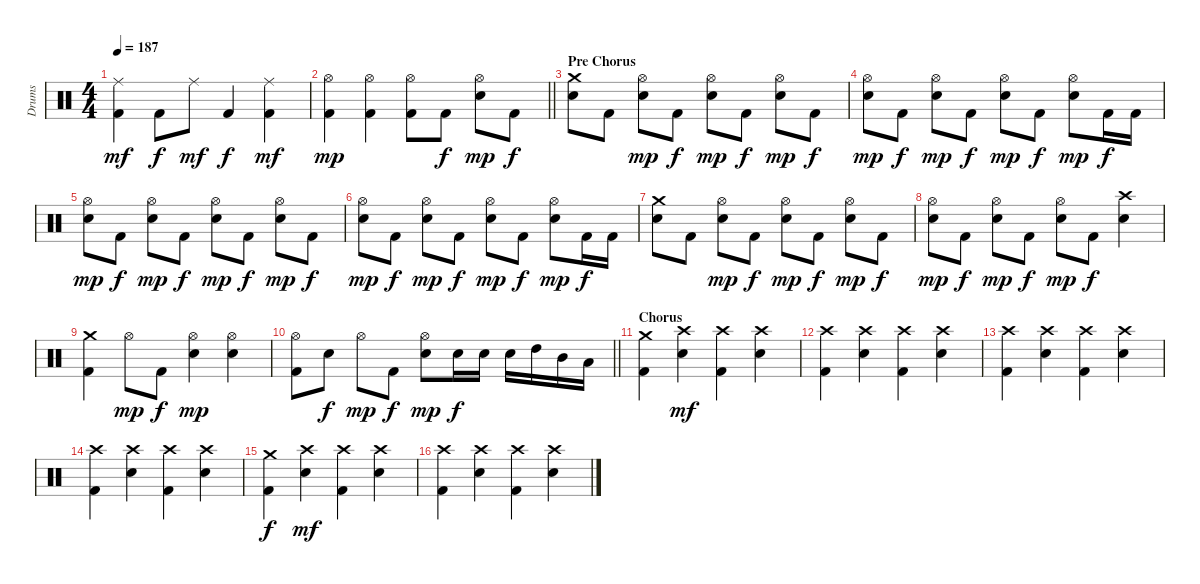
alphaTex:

\track ("Drums" "Drums") {instrument percussion}
\staff {score}
\articulation defaults
\ts (4 4)
\tempo 187
\clef neutral
\ks c
("Ride (middle)" "Kick (hit) 2").4{dy mf} "Kick (hit) 2".8{dy f} "Ride (middle)".8{dy mf} "Kick (hit) 2".4{dy f} ("Ride (middle)" "Kick (hit) 2").4{dy mf} |
\barLineRight lightlight
("Hi-Hat (open)" "Kick (hit) 2").4{dy mp} ("Hi-Hat (open)" "Kick (hit) 2").4 ("Hi-Hat (open)" "Kick (hit) 2").8 "Kick (hit) 2".8{dy f} ("Hi-Hat (open)" "Snare (hit) 2").8{dy mp} "Kick (hit) 2".8{dy f} |
\section ("" "Pre Chorus")
("Crash medium (hit)" "Snare (hit) 2").8 "Kick (hit) 2".8 ("Hi-Hat (open)" "Snare (hit) 2").8{dy mp} "Kick (hit) 2".8{dy f} ("Hi-Hat (open)" "Snare (hit) 2").8{dy mp} "Kick (hit) 2".8{dy f} ("Hi-Hat (open)" "Snare (hit) 2").8{dy mp} "Kick (hit) 2".8{dy f} |
("Hi-Hat (open)" "Snare (hit) 2").8{dy mp} "Kick (hit) 2".8{dy f} ("Hi-Hat (open)" "Snare (hit) 2").8{dy mp} "Kick (hit) 2".8{dy f} ("Hi-Hat (open)" "Snare (hit) 2").8{dy mp} "Kick (hit) 2".8{dy f} ("Hi-Hat (open)" "Snare (hit) 2").8{dy mp} "Kick (hit) 2".16{dy f} "Kick (hit) 2".16 |
("Hi-Hat (open)" "Snare (hit) 2").8{dy mp} "Kick (hit) 2".8{dy f} ("Hi-Hat (open)" "Snare (hit) 2").8{dy mp} "Kick (hit) 2".8{dy f} ("Hi-Hat (open)" "Snare (hit) 2").8{dy mp} "Kick (hit) 2".8{dy f} ("Hi-Hat (open)" "Snare (hit) 2").8{dy mp} "Kick (hit) 2".8{dy f} |
("Hi-Hat (open)" "Snare (hit) 2").8{dy mp} "Kick (hit) 2".8{dy f} ("Hi-Hat (open)" "Snare (hit) 2").8{dy mp} "Kick (hit) 2".8{dy f} ("Hi-Hat (open)" "Snare (hit) 2").8{dy mp} "Kick (hit) 2".8{dy f} ("Hi-Hat (open)" "Snare (hit) 2").8{dy mp} "Kick (hit) 2".16{dy f} "Kick (hit) 2".16 |
("Crash medium (hit)" "Snare (hit) 2").8 "Kick (hit) 2".8 ("Hi-Hat (open)" "Snare (hit) 2").8{dy mp} "Kick (hit) 2".8{dy f} ("Hi-Hat (open)" "Snare (hit) 2").8{dy mp} "Kick (hit) 2".8{dy f} ("Hi-Hat (open)" "Snare (hit) 2").8{dy mp} "Kick (hit) 2".8{dy f} |
("Hi-Hat (open)" "Snare (hit) 2").8{dy mp} "Kick (hit) 2".8{dy f} ("Hi-Hat (open)" "Snare (hit) 2").8{dy mp} "Kick (hit) 2".8{dy f} ("Hi-Hat (open)" "Snare (hit) 2").8{dy mp} "Kick (hit) 2".8{dy f} ("Crash high (hit)" "Snare (hit) 2").4 |
("Crash medium (hit)" "Kick (hit) 2").4 "Hi-Hat (open)".8{dy mp} "Kick (hit) 2".8{dy f} ("Hi-Hat (open)" "Snare (hit) 2").4{dy mp} ("Hi-Hat (open)" "Snare (hit) 2").4 |
\barLineRight lightlight
("Hi-Hat (open)" "Kick (hit) 2").8 "Snare (hit) 2".8{dy f} "Hi-Hat (open)".8{dy mp} "Kick (hit) 2".8{dy f} ("Hi-Hat (open)" "Snare (hit) 2").8{dy mp} "Snare (hit) 2".16{dy f} "Snare (hit) 2".16 "Snare (hit) 2".16 "High Tom (hit)".16 "Mid Tom (hit)".16 "Low Tom (hit)".16 |
\section ("" "Chorus")
("Crash medium (hit)" "Kick (hit) 2").4 ("Crash high (hit)" "Snare (hit) 2").4{dy mf} ("Crash high (hit)" "Kick (hit) 2").4 ("Crash high (hit)" "Snare (hit) 2").4 |
("Crash high (hit)" "Kick (hit) 2").4 ("Crash high (hit)" "Snare (hit) 2").4 ("Crash high (hit)" "Kick (hit) 2").4 ("Crash high (hit)" "Snare (hit) 2").4 |
("Crash high (hit)" "Kick (hit) 2").4 ("Crash high (hit)" "Snare (hit) 2").4 ("Crash high (hit)" "Kick (hit) 2").4 ("Crash high (hit)" "Snare (hit) 2").4 |
("Crash high (hit)" "Kick (hit) 2").4 ("Crash high (hit)" "Snare (hit) 2").4 ("Crash high (hit)" "Kick (hit) 2").4 ("Crash high (hit)" "Snare (hit) 2").4 |
("Crash medium (hit)" "Kick (hit) 2").4{dy f} ("Crash high (hit)" "Snare (hit) 2").4{dy mf} ("Crash high (hit)" "Kick (hit) 2").4 ("Crash high (hit)" "Snare (hit) 2").4 |
("Crash high (hit)" "Kick (hit) 2").4 ("Crash high (hit)" "Snare (hit) 2").4 ("Crash high (hit)" "Kick (hit) 2").4 ("Crash high (hit)" "Snare (hit) 2").4
